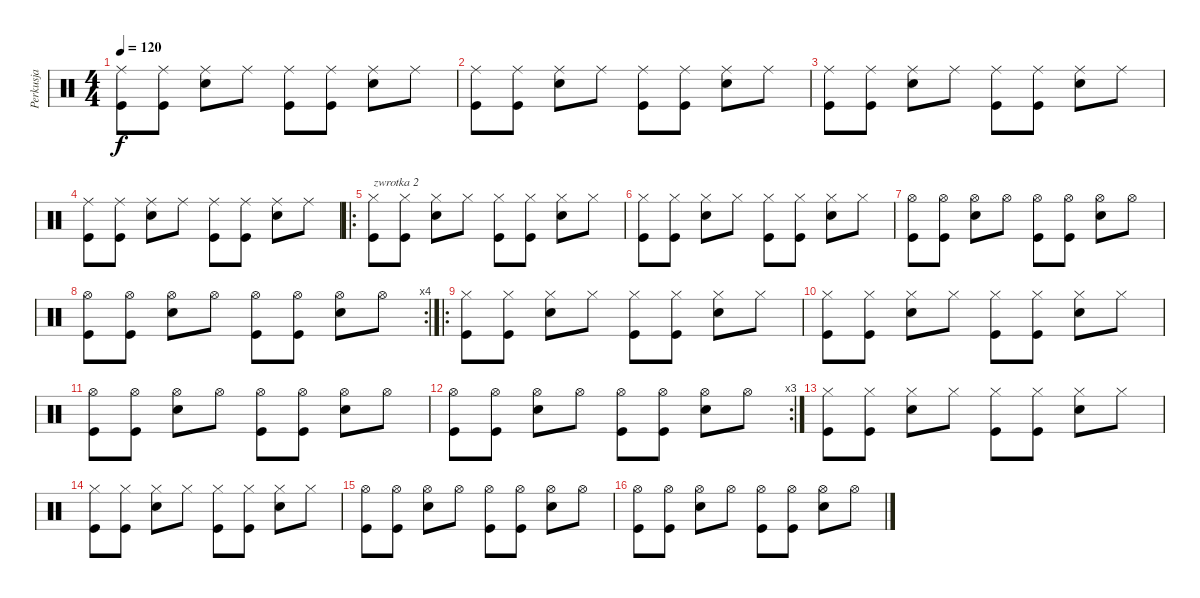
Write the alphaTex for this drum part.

\track ("Perkusja" "Perkusja") {instrument percussion}
\staff {score}
\articulation defaults
\ts (4 4)
\tempo 120
\clef neutral
\ks c
("Ride (middle)" "Kick (hit)").8{dy f} ("Ride (middle)" "Kick (hit)").8 ("Ride (middle)" "Electric Snare (hit)").8 "Ride (middle)".8 ("Ride (middle)" "Kick (hit)").8 ("Ride (middle)" "Kick (hit)").8 ("Ride (middle)" "Electric Snare (hit)").8 "Ride (middle)".8 |
("Ride (middle)" "Kick (hit)").8 ("Ride (middle)" "Kick (hit)").8 ("Ride (middle)" "Electric Snare (hit)").8 "Ride (middle)".8 ("Ride (middle)" "Kick (hit)").8 ("Ride (middle)" "Kick (hit)").8 ("Ride (middle)" "Electric Snare (hit)").8 "Ride (middle)".8 |
("Ride (middle)" "Kick (hit)").8 ("Ride (middle)" "Kick (hit)").8 ("Ride (middle)" "Electric Snare (hit)").8 "Ride (middle)".8 ("Ride (middle)" "Kick (hit)").8 ("Ride (middle)" "Kick (hit)").8 ("Ride (middle)" "Electric Snare (hit)").8 "Ride (middle)".8 |
("Ride (middle)" "Kick (hit)").8 ("Ride (middle)" "Kick (hit)").8 ("Ride (middle)" "Electric Snare (hit)").8 "Ride (middle)".8 ("Ride (middle)" "Kick (hit)").8 ("Ride (middle)" "Kick (hit)").8 ("Ride (middle)" "Electric Snare (hit)").8 "Ride (middle)".8 |
\ro
("Hi-Hat (closed)" "Kick (hit)").8{txt "zwrotka 2"} ("Hi-Hat (closed)" "Kick (hit)").8 ("Hi-Hat (closed)" "Electric Snare (hit)").8 "Hi-Hat (closed)".8 ("Hi-Hat (closed)" "Kick (hit)").8 ("Hi-Hat (closed)" "Kick (hit)").8 ("Hi-Hat (closed)" "Electric Snare (hit)").8 "Hi-Hat (closed)".8 |
("Hi-Hat (closed)" "Kick (hit)").8 ("Hi-Hat (closed)" "Kick (hit)").8 ("Hi-Hat (closed)" "Electric Snare (hit)").8 "Hi-Hat (closed)".8 ("Hi-Hat (closed)" "Kick (hit)").8 ("Hi-Hat (closed)" "Kick (hit)").8 ("Hi-Hat (closed)" "Electric Snare (hit)").8 "Hi-Hat (closed)".8 |
("Hi-Hat (open)" "Kick (hit)").8 ("Hi-Hat (open)" "Kick (hit)").8 ("Hi-Hat (open)" "Electric Snare (hit)").8 "Hi-Hat (open)".8 ("Hi-Hat (open)" "Kick (hit)").8 ("Hi-Hat (open)" "Kick (hit)").8 ("Hi-Hat (open)" "Electric Snare (hit)").8 "Hi-Hat (open)".8 |
\rc 4
("Hi-Hat (open)" "Kick (hit)").8 ("Hi-Hat (open)" "Kick (hit)").8 ("Hi-Hat (open)" "Electric Snare (hit)").8 "Hi-Hat (open)".8 ("Hi-Hat (open)" "Kick (hit)").8 ("Hi-Hat (open)" "Kick (hit)").8 ("Hi-Hat (open)" "Electric Snare (hit)").8 "Hi-Hat (open)".8 |
\ro
("Hi-Hat (closed)" "Kick (hit)").8 ("Hi-Hat (closed)" "Kick (hit)").8 ("Hi-Hat (closed)" "Electric Snare (hit)").8 "Hi-Hat (closed)".8 ("Hi-Hat (closed)" "Kick (hit)").8 ("Hi-Hat (closed)" "Kick (hit)").8 ("Hi-Hat (closed)" "Electric Snare (hit)").8 "Hi-Hat (closed)".8 |
("Hi-Hat (closed)" "Kick (hit)").8 ("Hi-Hat (closed)" "Kick (hit)").8 ("Hi-Hat (closed)" "Electric Snare (hit)").8 "Hi-Hat (closed)".8 ("Hi-Hat (closed)" "Kick (hit)").8 ("Hi-Hat (closed)" "Kick (hit)").8 ("Hi-Hat (closed)" "Electric Snare (hit)").8 "Hi-Hat (closed)".8 |
("Hi-Hat (open)" "Kick (hit)").8 ("Hi-Hat (open)" "Kick (hit)").8 ("Hi-Hat (open)" "Electric Snare (hit)").8 "Hi-Hat (open)".8 ("Hi-Hat (open)" "Kick (hit)").8 ("Hi-Hat (open)" "Kick (hit)").8 ("Hi-Hat (open)" "Electric Snare (hit)").8 "Hi-Hat (open)".8 |
\rc 3
("Hi-Hat (open)" "Kick (hit)").8 ("Hi-Hat (open)" "Kick (hit)").8 ("Hi-Hat (open)" "Electric Snare (hit)").8 "Hi-Hat (open)".8 ("Hi-Hat (open)" "Kick (hit)").8 ("Hi-Hat (open)" "Kick (hit)").8 ("Hi-Hat (open)" "Electric Snare (hit)").8 "Hi-Hat (open)".8 |
("Hi-Hat (closed)" "Kick (hit)").8 ("Hi-Hat (closed)" "Kick (hit)").8 ("Hi-Hat (closed)" "Electric Snare (hit)").8 "Hi-Hat (closed)".8 ("Hi-Hat (closed)" "Kick (hit)").8 ("Hi-Hat (closed)" "Kick (hit)").8 ("Hi-Hat (closed)" "Electric Snare (hit)").8 "Hi-Hat (closed)".8 |
("Hi-Hat (closed)" "Kick (hit)").8 ("Hi-Hat (closed)" "Kick (hit)").8 ("Hi-Hat (closed)" "Electric Snare (hit)").8 "Hi-Hat (closed)".8 ("Hi-Hat (closed)" "Kick (hit)").8 ("Hi-Hat (closed)" "Kick (hit)").8 ("Hi-Hat (closed)" "Electric Snare (hit)").8 "Hi-Hat (closed)".8 |
("Hi-Hat (open)" "Kick (hit)").8 ("Hi-Hat (open)" "Kick (hit)").8 ("Hi-Hat (open)" "Electric Snare (hit)").8 "Hi-Hat (open)".8 ("Hi-Hat (open)" "Kick (hit)").8 ("Hi-Hat (open)" "Kick (hit)").8 ("Hi-Hat (open)" "Electric Snare (hit)").8 "Hi-Hat (open)".8 |
("Hi-Hat (open)" "Kick (hit)").8 ("Hi-Hat (open)" "Kick (hit)").8 ("Hi-Hat (open)" "Electric Snare (hit)").8 "Hi-Hat (open)".8 ("Hi-Hat (open)" "Kick (hit)").8 ("Hi-Hat (open)" "Kick (hit)").8 ("Hi-Hat (open)" "Electric Snare (hit)").8 "Hi-Hat (open)".8
